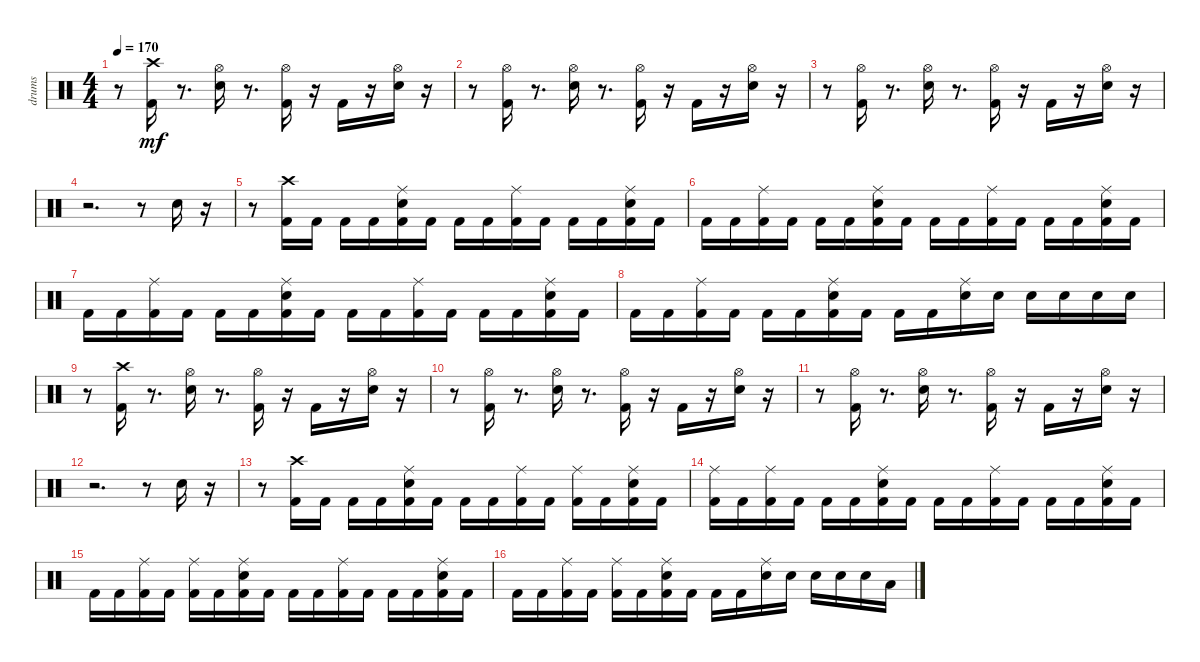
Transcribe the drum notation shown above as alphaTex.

\track ("drums               " "drums     ") {instrument percussion}
\staff {score}
\articulation defaults
\ts (4 4)
\tempo 170
\clef neutral
\ks c
r.8{dy mf} ("Crash high (hit)" "Kick (hit) 2").16 r.8{d} ("Hi-Hat (open)" "Snare (hit) 2").16 r.8{d} ("Hi-Hat (open)" "Kick (hit) 2").16 r.16 "Kick (hit) 2".16 r.16 ("Hi-Hat (open)" "Snare (hit) 2").16 r.16 |
r.8 ("Kick (hit) 2" "Hi-Hat (open)").16 r.8{d} ("Hi-Hat (open)" "Snare (hit) 2").16 r.8{d} ("Hi-Hat (open)" "Kick (hit) 2").16 r.16 "Kick (hit) 2".16 r.16 ("Hi-Hat (open)" "Snare (hit) 2").16 r.16 |
r.8 ("Kick (hit) 2" "Hi-Hat (open)").16 r.8{d} ("Hi-Hat (open)" "Snare (hit) 2").16 r.8{d} ("Hi-Hat (open)" "Kick (hit) 2").16 r.16 "Kick (hit) 2".16 r.16 ("Hi-Hat (open)" "Snare (hit) 2").16 r.16 |
r.2{d} r.8 "Snare (hit) 2".16 r.16 |
r.8 ("Kick (hit) 2" "Crash high (hit)").16 "Kick (hit) 2".16 "Kick (hit) 2".16 "Kick (hit) 2".16 ("Kick (hit) 2" "Ride (middle)" "Snare (hit) 2").16 "Kick (hit) 2".16 "Kick (hit) 2".16 "Kick (hit) 2".16 ("Kick (hit) 2" "Ride (middle)").16 "Kick (hit) 2".16 "Kick (hit) 2".16 "Kick (hit) 2".16 ("Kick (hit) 2" "Ride (middle)" "Snare (hit) 2").16 "Kick (hit) 2".16 |
"Kick (hit) 2".16 "Kick (hit) 2".16 ("Kick (hit) 2" "Ride (middle)").16 "Kick (hit) 2".16 "Kick (hit) 2".16 "Kick (hit) 2".16 ("Kick (hit) 2" "Ride (middle)" "Snare (hit) 2").16 "Kick (hit) 2".16 "Kick (hit) 2".16 "Kick (hit) 2".16 ("Kick (hit) 2" "Ride (middle)").16 "Kick (hit) 2".16 "Kick (hit) 2".16 "Kick (hit) 2".16 ("Kick (hit) 2" "Snare (hit) 2" "Ride (middle)").16 "Kick (hit) 2".16 |
"Kick (hit) 2".16 "Kick (hit) 2".16 ("Kick (hit) 2" "Ride (middle)").16 "Kick (hit) 2".16 "Kick (hit) 2".16 "Kick (hit) 2".16 ("Kick (hit) 2" "Ride (middle)" "Snare (hit) 2").16 "Kick (hit) 2".16 "Kick (hit) 2".16 "Kick (hit) 2".16 ("Kick (hit) 2" "Ride (middle)").16 "Kick (hit) 2".16 "Kick (hit) 2".16 "Kick (hit) 2".16 ("Kick (hit) 2" "Snare (hit) 2" "Ride (middle)").16 "Kick (hit) 2".16 |
"Kick (hit) 2".16 "Kick (hit) 2".16 ("Kick (hit) 2" "Ride (middle)").16 "Kick (hit) 2".16 "Kick (hit) 2".16 "Kick (hit) 2".16 ("Kick (hit) 2" "Ride (middle)" "Snare (hit) 2").16 "Kick (hit) 2".16 "Kick (hit) 2".16 "Kick (hit) 2".16 ("Ride (middle)" "Snare (hit) 2").16 "Snare (hit) 2".16 "Snare (hit) 2".16 "Snare (hit) 2".16 "Snare (hit) 2".16 "Snare (hit) 2".16 |
r.8 ("Crash high (hit)" "Kick (hit) 2").16 r.8{d} ("Hi-Hat (open)" "Snare (hit) 2").16 r.8{d} ("Hi-Hat (open)" "Kick (hit) 2").16 r.16 "Kick (hit) 2".16 r.16 ("Hi-Hat (open)" "Snare (hit) 2").16 r.16 |
r.8 ("Kick (hit) 2" "Hi-Hat (open)").16 r.8{d} ("Hi-Hat (open)" "Snare (hit) 2").16 r.8{d} ("Hi-Hat (open)" "Kick (hit) 2").16 r.16 "Kick (hit) 2".16 r.16 ("Hi-Hat (open)" "Snare (hit) 2").16 r.16 |
r.8 ("Kick (hit) 2" "Hi-Hat (open)").16 r.8{d} ("Hi-Hat (open)" "Snare (hit) 2").16 r.8{d} ("Hi-Hat (open)" "Kick (hit) 2").16 r.16 "Kick (hit) 2".16 r.16 ("Hi-Hat (open)" "Snare (hit) 2").16 r.16 |
r.2{d} r.8 "Snare (hit) 2".16 r.16 |
r.8 ("Kick (hit) 2" "Crash high (hit)").16 "Kick (hit) 2".16 "Kick (hit) 2".16 "Kick (hit) 2".16 ("Kick (hit) 2" "Ride (middle)" "Snare (hit) 2").16 "Kick (hit) 2".16 "Kick (hit) 2".16 "Kick (hit) 2".16 ("Kick (hit) 2" "Ride (middle)").16 "Kick (hit) 2".16 ("Kick (hit) 2" "Ride (middle)").16 "Kick (hit) 2".16 ("Kick (hit) 2" "Ride (middle)" "Snare (hit) 2").16 "Kick (hit) 2".16 |
("Kick (hit) 2" "Ride (middle)").16 "Kick (hit) 2".16 ("Kick (hit) 2" "Ride (middle)").16 "Kick (hit) 2".16 "Kick (hit) 2".16 "Kick (hit) 2".16 ("Kick (hit) 2" "Ride (middle)" "Snare (hit) 2").16 "Kick (hit) 2".16 "Kick (hit) 2".16 "Kick (hit) 2".16 ("Kick (hit) 2" "Ride (middle)").16 "Kick (hit) 2".16 "Kick (hit) 2".16 "Kick (hit) 2".16 ("Kick (hit) 2" "Snare (hit) 2" "Ride (middle)").16 "Kick (hit) 2".16 |
"Kick (hit) 2".16 "Kick (hit) 2".16 ("Kick (hit) 2" "Ride (middle)").16 "Kick (hit) 2".16 ("Kick (hit) 2" "Ride (middle)").16 "Kick (hit) 2".16 ("Kick (hit) 2" "Ride (middle)" "Snare (hit) 2").16 "Kick (hit) 2".16 "Kick (hit) 2".16 "Kick (hit) 2".16 ("Kick (hit) 2" "Ride (middle)").16 "Kick (hit) 2".16 "Kick (hit) 2".16 "Kick (hit) 2".16 ("Kick (hit) 2" "Snare (hit) 2" "Ride (middle)").16 "Kick (hit) 2".16 |
"Kick (hit) 2".16 "Kick (hit) 2".16 ("Kick (hit) 2" "Ride (middle)").16 "Kick (hit) 2".16 ("Kick (hit) 2" "Ride (middle)").16 "Kick (hit) 2".16 ("Kick (hit) 2" "Ride (middle)" "Snare (hit) 2").16 "Kick (hit) 2".16 "Kick (hit) 2".16 "Kick (hit) 2".16 ("Ride (middle)" "Snare (hit) 2").16 "Snare (hit) 2".16 "Snare (hit) 2".16 "Snare (hit) 2".16 "Snare (hit) 2".16 "Low Floor Tom (hit)".16
